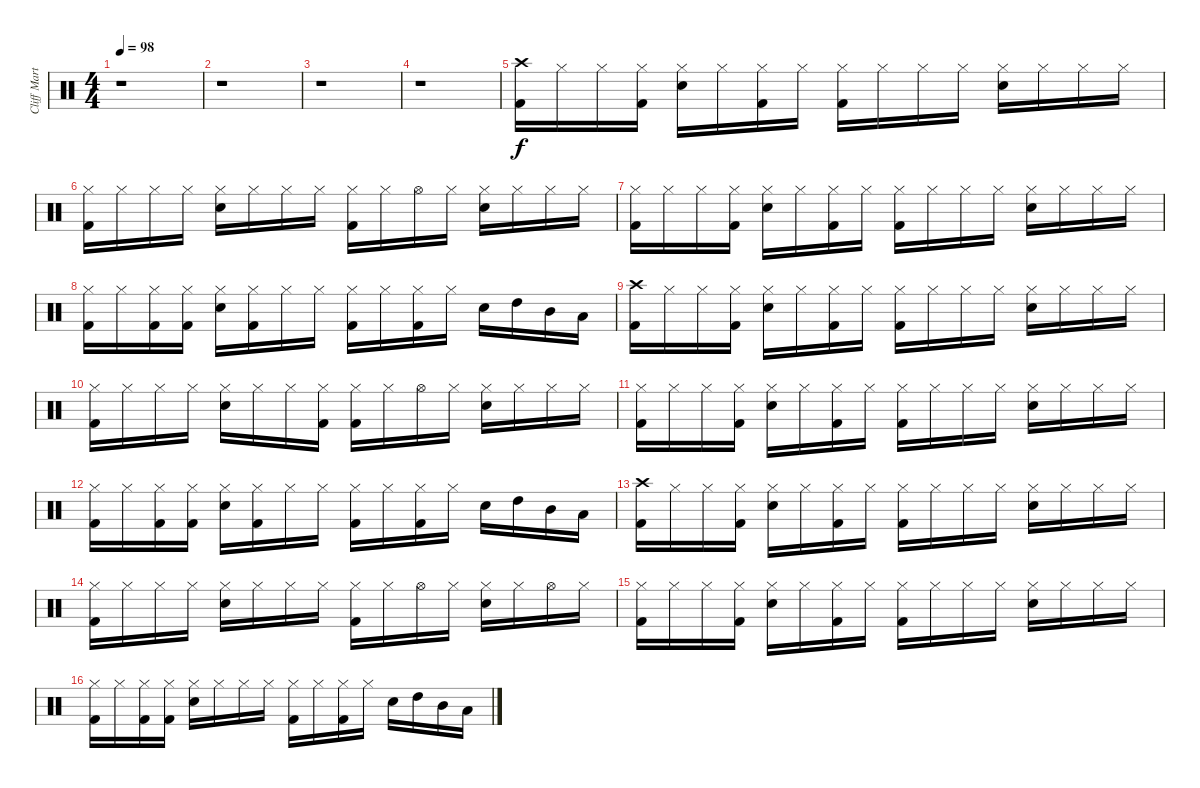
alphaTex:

\track ("Cliff Martinez" "Cliff Mart") {instrument percussion bank 1}
\staff {score}
\articulation defaults
\ts (4 4)
\tempo 98
\clef neutral
\ks c
r.1{dy f} |
r.1 |
r.1 |
r.1 |
("Crash high (hit)" "Kick (hit) 2").16 "Hi-Hat (closed)".16 "Hi-Hat (closed)".16 ("Hi-Hat (closed)" "Kick (hit) 2").16 ("Hi-Hat (closed)" "Snare (hit) 2").16 "Hi-Hat (closed)".16 ("Hi-Hat (closed)" "Kick (hit) 2").16 "Hi-Hat (closed)".16 ("Hi-Hat (closed)" "Kick (hit) 2").16 "Hi-Hat (closed)".16 "Hi-Hat (closed)".16 "Hi-Hat (closed)".16 ("Hi-Hat (closed)" "Snare (hit) 2").16 "Hi-Hat (closed)".16 "Hi-Hat (closed)".16 "Hi-Hat (closed)".16 |
("Hi-Hat (closed)" "Kick (hit) 2").16 "Hi-Hat (closed)".16 "Hi-Hat (closed)".16 "Hi-Hat (closed)".16 ("Hi-Hat (closed)" "Snare (hit) 2").16 "Hi-Hat (closed)".16 "Hi-Hat (closed)".16 "Hi-Hat (closed)".16 ("Hi-Hat (closed)" "Kick (hit) 2").16 "Hi-Hat (closed)".16 "Hi-Hat (open)".16 "Hi-Hat (closed)".16 ("Hi-Hat (closed)" "Snare (hit) 2").16 "Hi-Hat (closed)".16 "Hi-Hat (closed)".16 "Hi-Hat (closed)".16 |
("Hi-Hat (closed)" "Kick (hit) 2").16 "Hi-Hat (closed)".16 "Hi-Hat (closed)".16 ("Hi-Hat (closed)" "Kick (hit) 2").16 ("Hi-Hat (closed)" "Snare (hit) 2").16 "Hi-Hat (closed)".16 ("Hi-Hat (closed)" "Kick (hit) 2").16 "Hi-Hat (closed)".16 ("Hi-Hat (closed)" "Kick (hit) 2").16 "Hi-Hat (closed)".16 "Hi-Hat (closed)".16 "Hi-Hat (closed)".16 ("Hi-Hat (closed)" "Snare (hit) 2").16 "Hi-Hat (closed)".16 "Hi-Hat (closed)".16 "Hi-Hat (closed)".16 |
("Hi-Hat (closed)" "Kick (hit) 2").16 "Hi-Hat (closed)".16 ("Hi-Hat (closed)" "Kick (hit) 2").16 ("Hi-Hat (closed)" "Kick (hit) 2").16 ("Hi-Hat (closed)" "Snare (hit) 2").16 ("Hi-Hat (closed)" "Kick (hit) 2").16 "Hi-Hat (closed)".16 "Hi-Hat (closed)".16 ("Hi-Hat (closed)" "Kick (hit) 2").16 "Hi-Hat (closed)".16 ("Hi-Hat (closed)" "Kick (hit) 2").16 "Hi-Hat (closed)".16 "Snare (hit) 2".16 "High Tom (hit)".16 "Mid Tom (hit)".16 "Low Tom (hit)".16 |
("Crash high (hit)" "Kick (hit) 2").16 "Hi-Hat (closed)".16 "Hi-Hat (closed)".16 ("Hi-Hat (closed)" "Kick (hit) 2").16 ("Hi-Hat (closed)" "Snare (hit) 2").16 "Hi-Hat (closed)".16 ("Hi-Hat (closed)" "Kick (hit) 2").16 "Hi-Hat (closed)".16 ("Hi-Hat (closed)" "Kick (hit) 2").16 "Hi-Hat (closed)".16 "Hi-Hat (closed)".16 "Hi-Hat (closed)".16 ("Hi-Hat (closed)" "Snare (hit) 2").16 "Hi-Hat (closed)".16 "Hi-Hat (closed)".16 "Hi-Hat (closed)".16 |
("Hi-Hat (closed)" "Kick (hit) 2").16 "Hi-Hat (closed)".16 "Hi-Hat (closed)".16 "Hi-Hat (closed)".16 ("Hi-Hat (closed)" "Snare (hit) 2").16 "Hi-Hat (closed)".16 "Hi-Hat (closed)".16 ("Hi-Hat (closed)" "Kick (hit) 2").16 ("Hi-Hat (closed)" "Kick (hit) 2").16 "Hi-Hat (closed)".16 "Hi-Hat (open)".16 "Hi-Hat (closed)".16 ("Hi-Hat (closed)" "Snare (hit) 2").16 "Hi-Hat (closed)".16 "Hi-Hat (closed)".16 "Hi-Hat (closed)".16 |
("Hi-Hat (closed)" "Kick (hit) 2").16 "Hi-Hat (closed)".16 "Hi-Hat (closed)".16 ("Hi-Hat (closed)" "Kick (hit) 2").16 ("Hi-Hat (closed)" "Snare (hit) 2").16 "Hi-Hat (closed)".16 ("Hi-Hat (closed)" "Kick (hit) 2").16 "Hi-Hat (closed)".16 ("Hi-Hat (closed)" "Kick (hit) 2").16 "Hi-Hat (closed)".16 "Hi-Hat (closed)".16 "Hi-Hat (closed)".16 ("Hi-Hat (closed)" "Snare (hit) 2").16 "Hi-Hat (closed)".16 "Hi-Hat (closed)".16 "Hi-Hat (closed)".16 |
("Hi-Hat (closed)" "Kick (hit) 2").16 "Hi-Hat (closed)".16 ("Hi-Hat (closed)" "Kick (hit) 2").16 ("Hi-Hat (closed)" "Kick (hit) 2").16 ("Hi-Hat (closed)" "Snare (hit) 2").16 ("Hi-Hat (closed)" "Kick (hit) 2").16 "Hi-Hat (closed)".16 "Hi-Hat (closed)".16 ("Hi-Hat (closed)" "Kick (hit) 2").16 "Hi-Hat (closed)".16 ("Hi-Hat (closed)" "Kick (hit) 2").16 "Hi-Hat (closed)".16 "Snare (hit) 2".16 "High Tom (hit)".16 "Mid Tom (hit)".16 "Low Tom (hit)".16 |
("Crash high (hit)" "Kick (hit) 2").16 "Hi-Hat (closed)".16 "Hi-Hat (closed)".16 ("Hi-Hat (closed)" "Kick (hit) 2").16 ("Hi-Hat (closed)" "Snare (hit) 2").16 "Hi-Hat (closed)".16 ("Hi-Hat (closed)" "Kick (hit) 2").16 "Hi-Hat (closed)".16 ("Hi-Hat (closed)" "Kick (hit) 2").16 "Hi-Hat (closed)".16 "Hi-Hat (closed)".16 "Hi-Hat (closed)".16 ("Hi-Hat (closed)" "Snare (hit) 2").16 "Hi-Hat (closed)".16 "Hi-Hat (closed)".16 "Hi-Hat (closed)".16 |
("Hi-Hat (closed)" "Kick (hit) 2").16 "Hi-Hat (closed)".16 "Hi-Hat (closed)".16 "Hi-Hat (closed)".16 ("Hi-Hat (closed)" "Snare (hit) 2").16 "Hi-Hat (closed)".16 "Hi-Hat (closed)".16 "Hi-Hat (closed)".16 ("Hi-Hat (closed)" "Kick (hit) 2").16 "Hi-Hat (closed)".16 "Hi-Hat (open)".16 "Hi-Hat (closed)".16 ("Hi-Hat (closed)" "Snare (hit) 2").16 "Hi-Hat (closed)".16 "Hi-Hat (open)".16 "Hi-Hat (closed)".16 |
("Hi-Hat (closed)" "Kick (hit) 2").16 "Hi-Hat (closed)".16 "Hi-Hat (closed)".16 ("Hi-Hat (closed)" "Kick (hit) 2").16 ("Hi-Hat (closed)" "Snare (hit) 2").16 "Hi-Hat (closed)".16 ("Hi-Hat (closed)" "Kick (hit) 2").16 "Hi-Hat (closed)".16 ("Hi-Hat (closed)" "Kick (hit) 2").16 "Hi-Hat (closed)".16 "Hi-Hat (closed)".16 "Hi-Hat (closed)".16 ("Hi-Hat (closed)" "Snare (hit) 2").16 "Hi-Hat (closed)".16 "Hi-Hat (closed)".16 "Hi-Hat (closed)".16 |
("Hi-Hat (closed)" "Kick (hit) 2").16 "Hi-Hat (closed)".16 ("Hi-Hat (closed)" "Kick (hit) 2").16 ("Hi-Hat (closed)" "Kick (hit) 2").16 ("Hi-Hat (closed)" "Snare (hit) 2").16 "Hi-Hat (closed)".16 "Hi-Hat (closed)".16 "Hi-Hat (closed)".16 ("Hi-Hat (closed)" "Kick (hit) 2").16 "Hi-Hat (closed)".16 ("Hi-Hat (closed)" "Kick (hit) 2").16 "Hi-Hat (closed)".16 "Snare (hit) 2".16 "High Tom (hit)".16 "Mid Tom (hit)".16 "Low Tom (hit)".16
